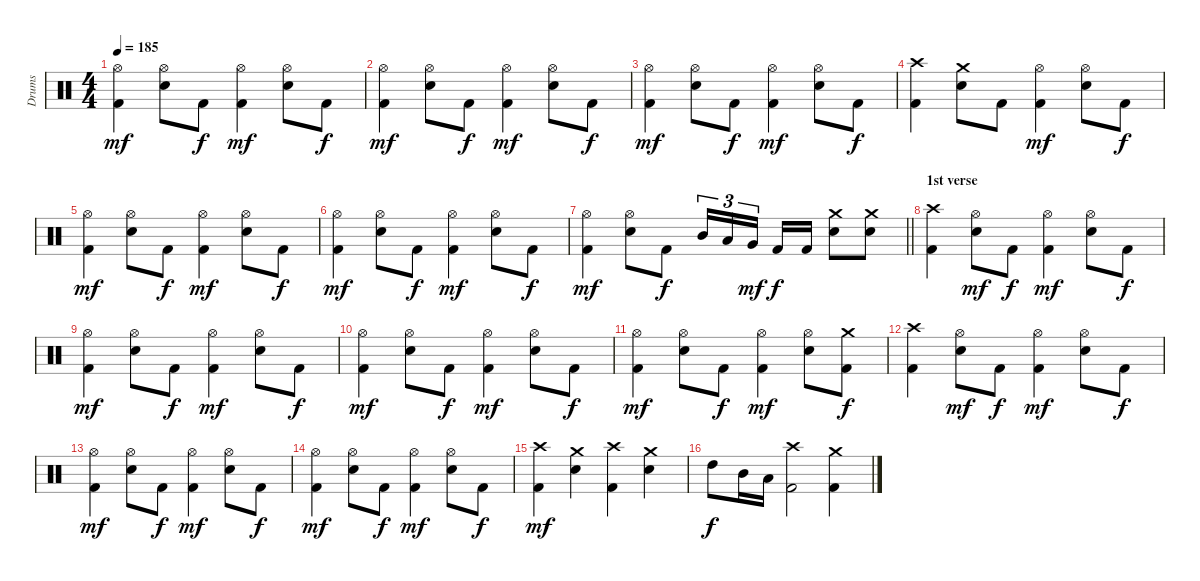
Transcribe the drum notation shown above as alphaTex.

\track ("Drums" "Drums") {instrument percussion}
\staff {score}
\articulation defaults
\ts (4 4)
\tempo 185
\clef neutral
\ks c
("Hi-Hat (open)" "Kick (hit) 2").4{dy mf} ("Hi-Hat (open)" "Electric Snare (hit)").8 "Kick (hit) 2".8{dy f} ("Hi-Hat (open)" "Kick (hit) 2").4{dy mf} ("Hi-Hat (open)" "Electric Snare (hit)").8 "Kick (hit) 2".8{dy f} |
("Hi-Hat (open)" "Kick (hit) 2").4{dy mf} ("Hi-Hat (open)" "Electric Snare (hit)").8 "Kick (hit) 2".8{dy f} ("Hi-Hat (open)" "Kick (hit) 2").4{dy mf} ("Hi-Hat (open)" "Electric Snare (hit)").8 "Kick (hit) 2".8{dy f} |
("Hi-Hat (open)" "Kick (hit) 2").4{dy mf} ("Hi-Hat (open)" "Electric Snare (hit)").8 "Kick (hit) 2".8{dy f} ("Hi-Hat (open)" "Kick (hit) 2").4{dy mf} ("Hi-Hat (open)" "Electric Snare (hit)").8 "Kick (hit) 2".8{dy f} |
("Crash high (hit)" "Kick (hit) 2").4 ("Crash medium (hit)" "Electric Snare (hit)").8 "Kick (hit) 2".8 ("Hi-Hat (open)" "Kick (hit) 2").4{dy mf} ("Hi-Hat (open)" "Electric Snare (hit)").8 "Kick (hit) 2".8{dy f} |
("Hi-Hat (open)" "Kick (hit) 2").4{dy mf} ("Hi-Hat (open)" "Electric Snare (hit)").8 "Kick (hit) 2".8{dy f} ("Hi-Hat (open)" "Kick (hit) 2").4{dy mf} ("Hi-Hat (open)" "Electric Snare (hit)").8 "Kick (hit) 2".8{dy f} |
("Hi-Hat (open)" "Kick (hit) 2").4{dy mf} ("Hi-Hat (open)" "Electric Snare (hit)").8 "Kick (hit) 2".8{dy f} ("Hi-Hat (open)" "Kick (hit) 2").4{dy mf} ("Hi-Hat (open)" "Electric Snare (hit)").8 "Kick (hit) 2".8{dy f} |
\barLineRight lightlight
("Hi-Hat (open)" "Kick (hit) 2").4{dy mf} ("Hi-Hat (open)" "Electric Snare (hit)").8 "Kick (hit) 2".8{dy f} "Mid Tom (hit)".16{tu (3 2)} "Low Tom (hit)".16{tu (3 2)} "Very Low Tom (hit)".16{tu (3 2) dy mf} "Kick (hit) 2".16{dy f} "Kick (hit) 2".16 ("Crash medium (hit)" "Electric Snare (hit)").8 ("Crash medium (hit)" "Electric Snare (hit)").8 |
\section ("" "1st verse")
("Crash high (hit)" "Kick (hit) 2").4 ("Hi-Hat (open)" "Electric Snare (hit)").8{dy mf} "Kick (hit) 2".8{dy f} ("Hi-Hat (open)" "Kick (hit) 2").4{dy mf} ("Hi-Hat (open)" "Electric Snare (hit)").8 "Kick (hit) 2".8{dy f} |
("Hi-Hat (open)" "Kick (hit) 2").4{dy mf} ("Hi-Hat (open)" "Electric Snare (hit)").8 "Kick (hit) 2".8{dy f} ("Hi-Hat (open)" "Kick (hit) 2").4{dy mf} ("Hi-Hat (open)" "Electric Snare (hit)").8 "Kick (hit) 2".8{dy f} |
("Hi-Hat (open)" "Kick (hit) 2").4{dy mf} ("Hi-Hat (open)" "Electric Snare (hit)").8 "Kick (hit) 2".8{dy f} ("Hi-Hat (open)" "Kick (hit) 2").4{dy mf} ("Hi-Hat (open)" "Electric Snare (hit)").8 "Kick (hit) 2".8{dy f} |
("Hi-Hat (open)" "Kick (hit) 2").4{dy mf} ("Hi-Hat (open)" "Electric Snare (hit)").8 "Kick (hit) 2".8{dy f} ("Hi-Hat (open)" "Kick (hit) 2").4{dy mf} ("Hi-Hat (open)" "Electric Snare (hit)").8 ("Crash medium (hit)" "Kick (hit) 2").8{dy f} |
("Crash high (hit)" "Kick (hit) 2").4 ("Hi-Hat (open)" "Electric Snare (hit)").8{dy mf} "Kick (hit) 2".8{dy f} ("Hi-Hat (open)" "Kick (hit) 2").4{dy mf} ("Hi-Hat (open)" "Electric Snare (hit)").8 "Kick (hit) 2".8{dy f} |
("Hi-Hat (open)" "Kick (hit) 2").4{dy mf} ("Hi-Hat (open)" "Electric Snare (hit)").8 "Kick (hit) 2".8{dy f} ("Hi-Hat (open)" "Kick (hit) 2").4{dy mf} ("Hi-Hat (open)" "Electric Snare (hit)").8 "Kick (hit) 2".8{dy f} |
("Hi-Hat (open)" "Kick (hit) 2").4{dy mf} ("Hi-Hat (open)" "Electric Snare (hit)").8 "Kick (hit) 2".8{dy f} ("Hi-Hat (open)" "Kick (hit) 2").4{dy mf} ("Hi-Hat (open)" "Electric Snare (hit)").8 "Kick (hit) 2".8{dy f} |
("Crash high (hit)" "Kick (hit) 2").4{dy mf} ("Crash medium (hit)" "Electric Snare (hit)").4 ("Crash high (hit)" "Kick (hit) 2").4 ("Crash medium (hit)" "Electric Snare (hit)").4 |
"High Tom (hit)".8{dy f} "Mid Tom (hit)".16 "Low Tom (hit)".16 ("Crash high (hit)" "Kick (hit) 2").2 ("Crash medium (hit)" "Kick (hit) 2").4
